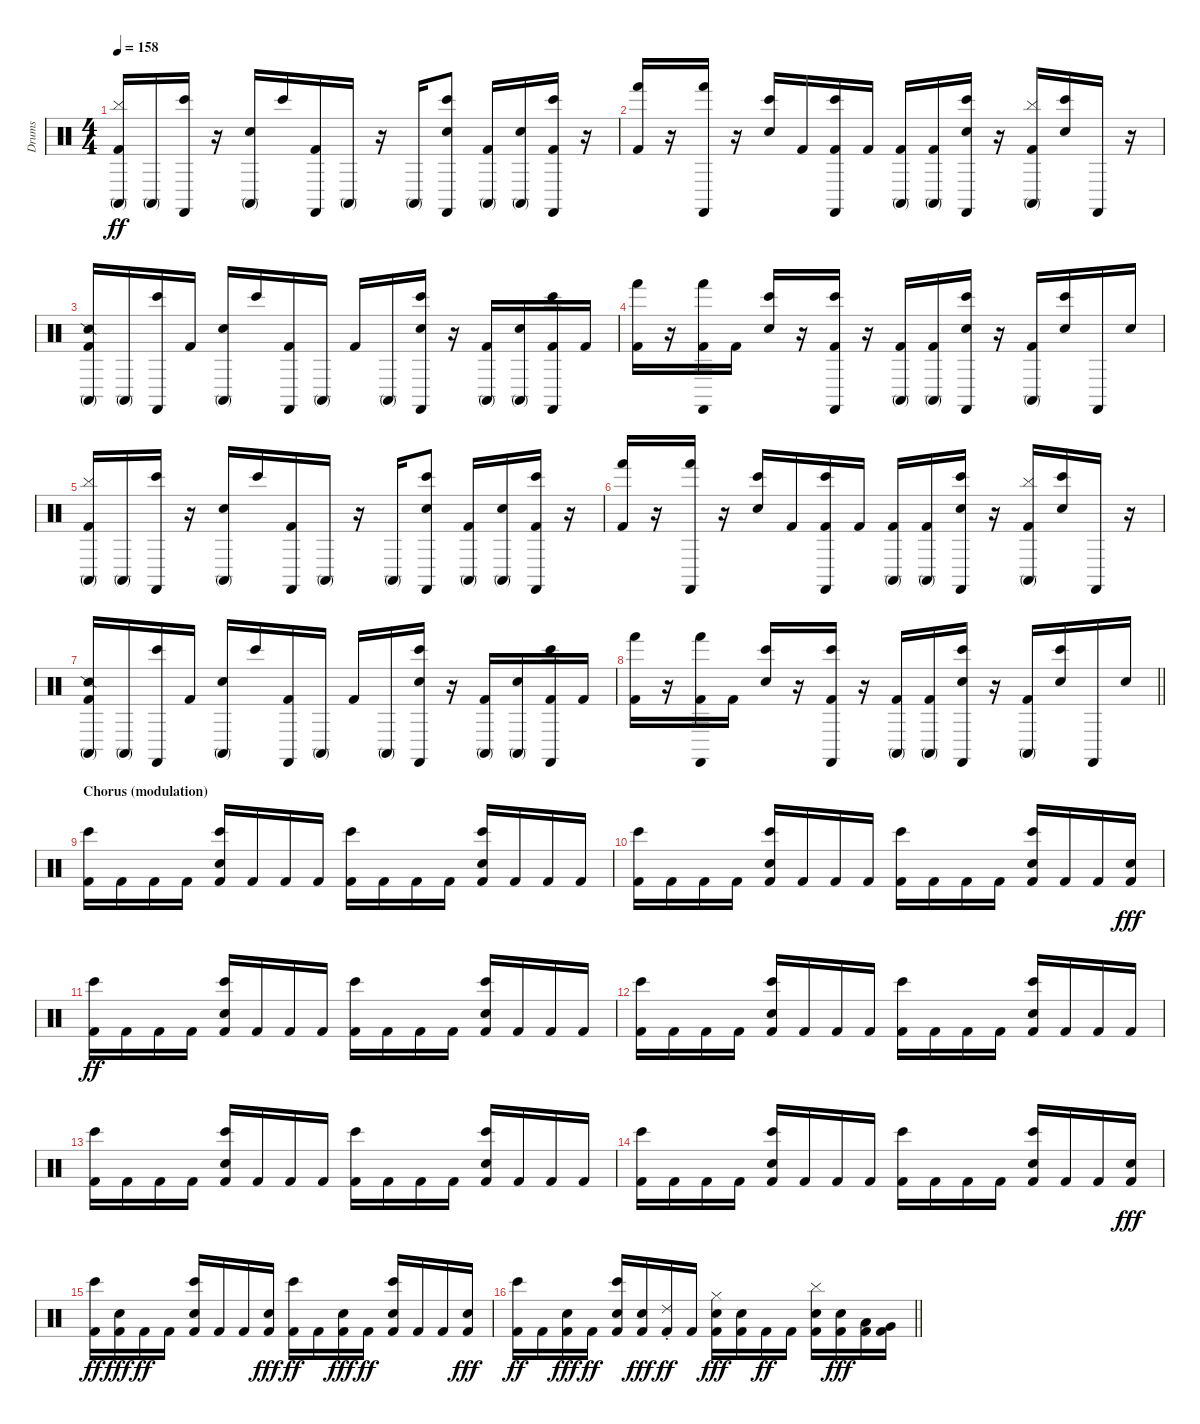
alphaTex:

\track ("Drums" "Drums") {instrument percussion}
\staff {score}
\articulation defaults
\ts (4 4)
\tempo 158
\clef neutral
\ks c
("Cymbal (hit)" "Kick (hit) 2" "Conga high (mute)").16{dy ff} "Conga high (mute)".16 ("Bongo High (hit)" "Castanets (hit)").16 r.16 ("Snare (hit) 2" "Conga high (mute)").16 "Bongo High (hit)".16 ("Kick (hit) 2" "Castanets (hit)").16 "Conga high (mute)".16 r.16 "Conga high (mute)".16 ("Snare (hit) 2" "Bongo High (hit)" "Castanets (hit)").8 ("Kick (hit) 2" "Conga high (mute)").16 ("Snare (hit) 2" "Conga high (mute)").16 ("Kick (hit) 2" "Bongo High (hit)" "Castanets (hit)").16 r.16 |
("Kick (hit) 2" "Hand (hit)").16 r.16 ("Hand (hit)" "Castanets (hit)").16 r.16 ("Snare (hit) 2" "Bongo High (hit)").16 "Kick (hit) 2".16 ("Kick (hit) 2" "Bongo High (hit)" "Castanets (hit)").16 "Kick (hit) 2".16 ("Kick (hit) 2" "Conga high (mute)").16 ("Kick (hit) 2" "Conga high (mute)").16 ("Snare (hit) 2" "Bongo High (hit)" "Castanets (hit)").16 r.16 ("Cymbal (hit)" "Kick (hit) 2" "Conga high (mute)").16 ("Snare (hit) 2" "Bongo High (hit)").16 "Castanets (hit)".16 r.16 |
("Snare (side stick) 2" "Kick (hit) 2" "Conga high (mute)").16 "Conga high (mute)".16 ("Bongo High (hit)" "Castanets (hit)").16 "Kick (hit) 2".16 ("Snare (hit) 2" "Conga high (mute)").16 "Bongo High (hit)".16 ("Kick (hit) 2" "Castanets (hit)").16 "Conga high (mute)".16 "Kick (hit) 2".16 "Conga high (mute)".16 ("Snare (hit) 2" "Bongo High (hit)" "Castanets (hit)").16 r.16 ("Kick (hit) 2" "Conga high (mute)").16 ("Snare (hit) 2" "Conga high (mute)").16 ("Kick (hit) 2" "Bongo High (hit)" "Castanets (hit)").16 "Kick (hit) 2".16 |
("Kick (hit) 2" "Hand (hit)").16 r.16 ("Kick (hit) 2" "Hand (hit)" "Castanets (hit)").16 "Kick (hit) 2".16 ("Snare (hit) 2" "Bongo High (hit)").16 r.16 ("Kick (hit) 2" "Bongo High (hit)" "Castanets (hit)").16 r.16 ("Kick (hit) 2" "Conga high (mute)").16 ("Kick (hit) 2" "Conga high (mute)").16 ("Snare (hit) 2" "Bongo High (hit)" "Castanets (hit)").16 r.16 ("Kick (hit) 2" "Conga high (mute)").16 ("Snare (hit) 2" "Bongo High (hit)").16 "Castanets (hit)".16 "Snare (hit) 2".16 |
("Cymbal (hit)" "Kick (hit) 2" "Conga high (mute)").16 "Conga high (mute)".16 ("Bongo High (hit)" "Castanets (hit)").16 r.16 ("Snare (hit) 2" "Conga high (mute)").16 "Bongo High (hit)".16 ("Kick (hit) 2" "Castanets (hit)").16 "Conga high (mute)".16 r.16 "Conga high (mute)".16 ("Snare (hit) 2" "Bongo High (hit)" "Castanets (hit)").8 ("Kick (hit) 2" "Conga high (mute)").16 ("Snare (hit) 2" "Conga high (mute)").16 ("Kick (hit) 2" "Bongo High (hit)" "Castanets (hit)").16 r.16 |
("Kick (hit) 2" "Hand (hit)").16 r.16 ("Hand (hit)" "Castanets (hit)").16 r.16 ("Snare (hit) 2" "Bongo High (hit)").16 "Kick (hit) 2".16 ("Kick (hit) 2" "Bongo High (hit)" "Castanets (hit)").16 "Kick (hit) 2".16 ("Kick (hit) 2" "Conga high (mute)").16 ("Kick (hit) 2" "Conga high (mute)").16 ("Snare (hit) 2" "Bongo High (hit)" "Castanets (hit)").16 r.16 ("Cymbal (hit)" "Kick (hit) 2" "Conga high (mute)").16 ("Snare (hit) 2" "Bongo High (hit)").16 "Castanets (hit)".16 r.16 |
("Snare (side stick) 2" "Kick (hit) 2" "Conga high (mute)").16 "Conga high (mute)".16 ("Bongo High (hit)" "Castanets (hit)").16 "Kick (hit) 2".16 ("Snare (hit) 2" "Conga high (mute)").16 "Bongo High (hit)".16 ("Kick (hit) 2" "Castanets (hit)").16 "Conga high (mute)".16 "Kick (hit) 2".16 "Conga high (mute)".16 ("Snare (hit) 2" "Bongo High (hit)" "Castanets (hit)").16 r.16 ("Kick (hit) 2" "Conga high (mute)").16 ("Snare (hit) 2" "Conga high (mute)").16 ("Kick (hit) 2" "Bongo High (hit)" "Castanets (hit)").16 "Kick (hit) 2".16 |
\barLineRight lightlight
("Kick (hit) 2" "Hand (hit)").16 r.16 ("Kick (hit) 2" "Hand (hit)" "Castanets (hit)").16 "Kick (hit) 2".16 ("Snare (hit) 2" "Bongo High (hit)").16 r.16 ("Kick (hit) 2" "Bongo High (hit)" "Castanets (hit)").16 r.16 ("Kick (hit) 2" "Conga high (mute)").16 ("Kick (hit) 2" "Conga high (mute)").16 ("Snare (hit) 2" "Bongo High (hit)" "Castanets (hit)").16 r.16 ("Kick (hit) 2" "Conga high (mute)").16 ("Snare (hit) 2" "Bongo High (hit)").16 "Castanets (hit)".16 "Snare (hit) 2".16 |
\section ("" "Chorus (modulation)")
("Bongo High (hit)" "Kick (hit) 2").16 "Kick (hit) 2".16 "Kick (hit) 2".16 "Kick (hit) 2".16 ("Bongo High (hit)" "Kick (hit) 2" "Snare (hit) 2").16 "Kick (hit) 2".16 "Kick (hit) 2".16 "Kick (hit) 2".16 ("Bongo High (hit)" "Kick (hit) 2").16 "Kick (hit) 2".16 "Kick (hit) 2".16 "Kick (hit) 2".16 ("Bongo High (hit)" "Kick (hit) 2" "Snare (hit) 2").16 "Kick (hit) 2".16 "Kick (hit) 2".16 "Kick (hit) 2".16 |
("Bongo High (hit)" "Kick (hit) 2").16 "Kick (hit) 2".16 "Kick (hit) 2".16 "Kick (hit) 2".16 ("Bongo High (hit)" "Kick (hit) 2" "Snare (hit) 2").16 "Kick (hit) 2".16 "Kick (hit) 2".16 "Kick (hit) 2".16 ("Bongo High (hit)" "Kick (hit) 2").16 "Kick (hit) 2".16 "Kick (hit) 2".16 "Kick (hit) 2".16 ("Bongo High (hit)" "Kick (hit) 2" "Snare (hit) 2").16 "Kick (hit) 2".16 "Kick (hit) 2".16 ("Kick (hit) 2" "Snare (hit) 2").16{dy fff} |
("Bongo High (hit)" "Kick (hit) 2").16{dy ff} "Kick (hit) 2".16 "Kick (hit) 2".16 "Kick (hit) 2".16 ("Bongo High (hit)" "Kick (hit) 2" "Snare (hit) 2").16 "Kick (hit) 2".16 "Kick (hit) 2".16 "Kick (hit) 2".16 ("Bongo High (hit)" "Kick (hit) 2").16 "Kick (hit) 2".16 "Kick (hit) 2".16 "Kick (hit) 2".16 ("Bongo High (hit)" "Kick (hit) 2" "Snare (hit) 2").16 "Kick (hit) 2".16 "Kick (hit) 2".16 "Kick (hit) 2".16 |
("Bongo High (hit)" "Kick (hit) 2").16 "Kick (hit) 2".16 "Kick (hit) 2".16 "Kick (hit) 2".16 ("Bongo High (hit)" "Kick (hit) 2" "Snare (hit) 2").16 "Kick (hit) 2".16 "Kick (hit) 2".16 "Kick (hit) 2".16 ("Bongo High (hit)" "Kick (hit) 2").16 "Kick (hit) 2".16 "Kick (hit) 2".16 "Kick (hit) 2".16 ("Bongo High (hit)" "Kick (hit) 2" "Snare (hit) 2").16 "Kick (hit) 2".16 "Kick (hit) 2".16 "Kick (hit) 2".16 |
("Bongo High (hit)" "Kick (hit) 2").16 "Kick (hit) 2".16 "Kick (hit) 2".16 "Kick (hit) 2".16 ("Bongo High (hit)" "Kick (hit) 2" "Snare (hit) 2").16 "Kick (hit) 2".16 "Kick (hit) 2".16 "Kick (hit) 2".16 ("Bongo High (hit)" "Kick (hit) 2").16 "Kick (hit) 2".16 "Kick (hit) 2".16 "Kick (hit) 2".16 ("Bongo High (hit)" "Kick (hit) 2" "Snare (hit) 2").16 "Kick (hit) 2".16 "Kick (hit) 2".16 "Kick (hit) 2".16 |
("Bongo High (hit)" "Kick (hit) 2").16 "Kick (hit) 2".16 "Kick (hit) 2".16 "Kick (hit) 2".16 ("Bongo High (hit)" "Kick (hit) 2" "Snare (hit) 2").16 "Kick (hit) 2".16 "Kick (hit) 2".16 "Kick (hit) 2".16 ("Bongo High (hit)" "Kick (hit) 2").16 "Kick (hit) 2".16 "Kick (hit) 2".16 "Kick (hit) 2".16 ("Bongo High (hit)" "Kick (hit) 2" "Snare (hit) 2").16 "Kick (hit) 2".16 "Kick (hit) 2".16 ("Kick (hit) 2" "Snare (hit) 2").16{dy fff} |
("Bongo High (hit)" "Kick (hit) 2").16{dy ff} ("Kick (hit) 2" "Snare (hit) 2").16{dy fff} "Kick (hit) 2".16{dy ff} "Kick (hit) 2".16 ("Bongo High (hit)" "Kick (hit) 2" "Snare (hit) 2").16 "Kick (hit) 2".16 "Kick (hit) 2".16 ("Kick (hit) 2" "Snare (hit) 2").16{dy fff} ("Bongo High (hit)" "Kick (hit) 2").16{dy ff} "Kick (hit) 2".16 ("Kick (hit) 2" "Snare (hit) 2").16{dy fff} "Kick (hit) 2".16{dy ff} ("Bongo High (hit)" "Kick (hit) 2" "Snare (hit) 2").16 "Kick (hit) 2".16 "Kick (hit) 2".16 ("Kick (hit) 2" "Snare (hit) 2").16{dy fff} |
\barLineRight lightlight
("Bongo High (hit)" "Kick (hit) 2").16{dy ff} "Kick (hit) 2".16 ("Kick (hit) 2" "Snare (hit) 2").16{dy fff} "Kick (hit) 2".16{dy ff} ("Bongo High (hit)" "Kick (hit) 2" "Snare (hit) 2").16 ("Kick (hit) 2" "Snare (hit) 2").16{dy fff} ("Ride (choke) 2" "Kick (hit) 2").16{dy ff} "Kick (hit) 2".16 ("Hi-Hat (closed)" "Kick (hit) 2" "Snare (hit) 2").16{dy fff} ("Kick (hit) 2" "Snare (hit) 2").16 "Kick (hit) 2".16{dy ff} "Kick (hit) 2".16 ("Cymbal (hit)" "Kick (hit) 2" "Snare (hit) 2").16 ("Kick (hit) 2" "Snare (hit) 2").16{dy fff} ("Kick (hit) 2" "Low Tom (hit)").16 ("Kick (hit) 2" "Very Low Tom (hit)").16
